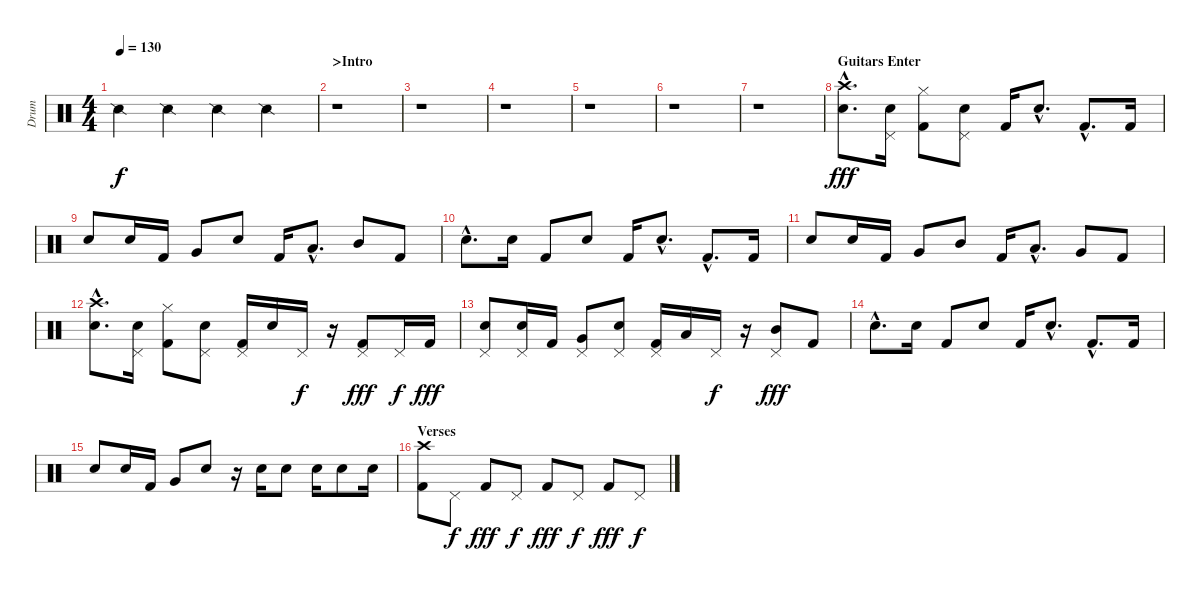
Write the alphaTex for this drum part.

\track ("Drum" "Drum") {instrument percussion}
\staff {score}
\articulation defaults
\ts (4 4)
\tempo 130
\clef neutral
\ks c "Snare (side stick) 2".4{dy f} "Snare (side stick) 2".4 "Snare (side stick) 2".4 "Snare (side stick) 2".4
|
\section ("" ">Intro")
r.1 |
r.1 |
r.1 |
r.1 |
r.1 |
r.1 |
\section ("" "Guitars Enter")
("Crash high (hit)"{hac} "Electric Snare (hit)"{hac}).8{d dy fff} ("Pedal Hi-Hat (hit)" "Electric Snare (hit)").16 ("Hi-Hat (closed)" "Kick (hit) 2").8 ("Pedal Hi-Hat (hit)" "Electric Snare (hit)").8 "Kick (hit) 2".16 "Electric Snare (hit)"{hac}.8{d} "Kick (hit) 2"{hac}.8{d} "Kick (hit) 2".16 |
"Electric Snare (hit)".8 "Electric Snare (hit)".16 "Kick (hit) 2".16 "Very Low Tom (hit)".8 "Electric Snare (hit)".8 "Kick (hit) 2".16 "Low Tom (hit)"{hac}.8{d} "Mid Tom (hit)".8 "Kick (hit) 2".8 |
"Electric Snare (hit)"{hac}.8{d} "Electric Snare (hit)".16 "Kick (hit) 2".8 "Electric Snare (hit)".8 "Kick (hit) 2".16 "Electric Snare (hit)"{hac}.8{d} "Kick (hit) 2"{hac}.8{d} "Kick (hit) 2".16 |
"Electric Snare (hit)".8 "Electric Snare (hit)".16 "Kick (hit) 2".16 "Very Low Tom (hit)".8 "Mid Tom (hit)".8 "Kick (hit) 2".16 "Low Tom (hit)"{hac}.8{d} "Very Low Tom (hit)".8 "Kick (hit) 2".8 |
("Crash high (hit)"{hac} "Electric Snare (hit)"{hac}).8{d} ("Pedal Hi-Hat (hit)" "Electric Snare (hit)").16 ("Hi-Hat (closed)" "Kick (hit) 2").8 ("Pedal Hi-Hat (hit)" "Electric Snare (hit)").8 ("Pedal Hi-Hat (hit)" "Kick (hit) 2").16 "Electric Snare (hit)".16 "Pedal Hi-Hat (hit)".16{dy f} r.16 ("Pedal Hi-Hat (hit)" "Kick (hit) 2").8{dy fff} "Pedal Hi-Hat (hit)".16{dy f} "Kick (hit) 2".16{dy fff} |
("Pedal Hi-Hat (hit)" "Electric Snare (hit)").8 ("Pedal Hi-Hat (hit)" "Electric Snare (hit)").16 "Kick (hit) 2".16 ("Pedal Hi-Hat (hit)" "Very Low Tom (hit)").8 ("Pedal Hi-Hat (hit)" "Electric Snare (hit)").8 ("Pedal Hi-Hat (hit)" "Kick (hit) 2").16 "Low Tom (hit)".16 "Pedal Hi-Hat (hit)".16{dy f} r.16 ("Pedal Hi-Hat (hit)" "Mid Tom (hit)").8{dy fff} "Kick (hit) 2".8 |
"Electric Snare (hit)"{hac}.8{d} "Electric Snare (hit)".16 "Kick (hit) 2".8 "Electric Snare (hit)".8 "Kick (hit) 2".16 "Electric Snare (hit)"{hac}.8{d} "Kick (hit) 2"{hac}.8{d} "Kick (hit) 2".16 |
"Electric Snare (hit)".8 "Electric Snare (hit)".16 "Kick (hit) 2".16 "Very Low Tom (hit)".8 "Electric Snare (hit)".8 r.16 "Electric Snare (hit)".16 "Electric Snare (hit)".8 "Electric Snare (hit)".16 "Electric Snare (hit)".8 "Electric Snare (hit)".16 |
\section ("" "Verses")
("Crash high (hit)" "Kick (hit) 2").8 "Pedal Hi-Hat (hit)".8{dy f} "Kick (hit) 2".8{dy fff} "Pedal Hi-Hat (hit)".8{dy f} "Kick (hit) 2".8{dy fff} "Pedal Hi-Hat (hit)".8{dy f} "Kick (hit) 2".8{dy fff} "Pedal Hi-Hat (hit)".8{dy f}
